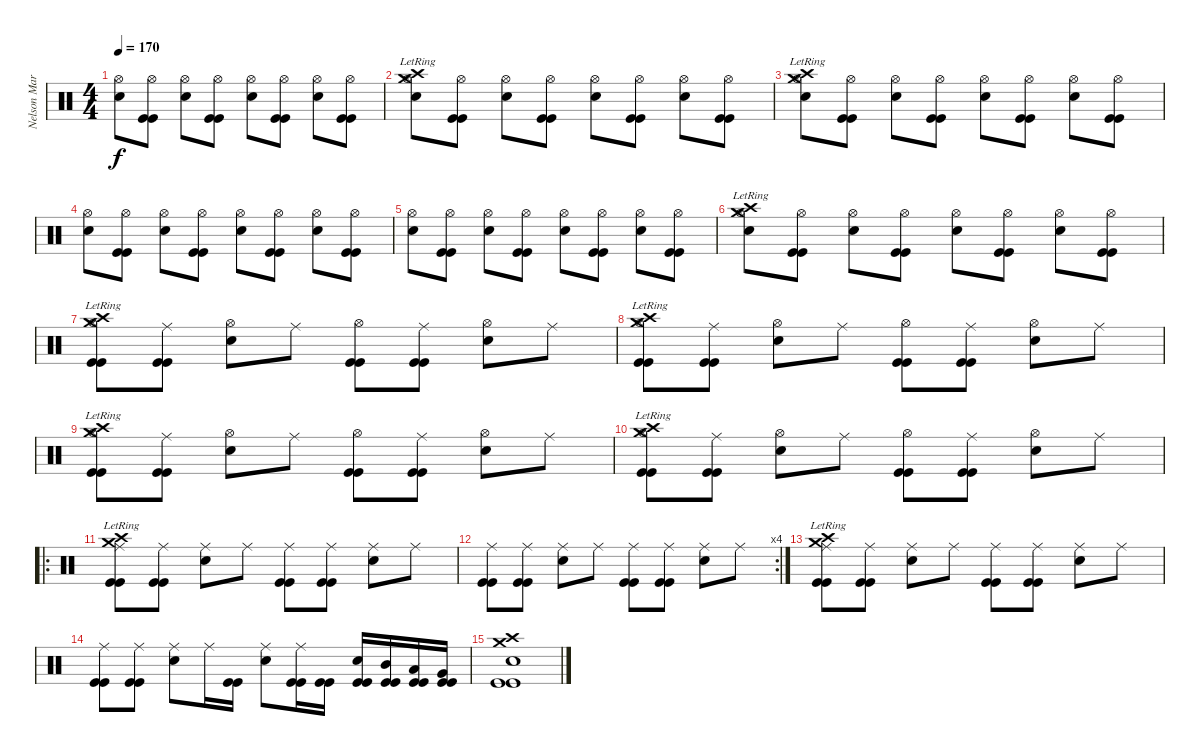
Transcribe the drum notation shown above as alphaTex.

\track ("Nelson Maria" "Nelson Mar") {instrument percussion}
\staff {score}
\articulation defaults
\ts (4 4)
\tempo 170
\clef neutral
\ks c
("Snare (hit) 2" "Hi-Hat (open)").8{dy f} ("Hi-Hat (open)" "Kick (hit)" "Kick (hit)").8 ("Snare (hit) 2" "Hi-Hat (open)").8 ("Hi-Hat (open)" "Kick (hit)" "Kick (hit)").8 ("Snare (hit) 2" "Hi-Hat (open)").8 ("Hi-Hat (open)" "Kick (hit)" "Kick (hit)").8 ("Snare (hit) 2" "Hi-Hat (open)").8 ("Hi-Hat (open)" "Kick (hit)" "Kick (hit)").8 |
("Crash high (hit)"{lr} "Crash medium (hit)"{lr} "Snare (hit) 2" "Hi-Hat (open)").8 ("Hi-Hat (open)" "Kick (hit)" "Kick (hit)").8 ("Snare (hit) 2" "Hi-Hat (open)").8 ("Hi-Hat (open)" "Kick (hit)" "Kick (hit)").8 ("Snare (hit) 2" "Hi-Hat (open)").8 ("Hi-Hat (open)" "Kick (hit)" "Kick (hit)").8 ("Snare (hit) 2" "Hi-Hat (open)").8 ("Hi-Hat (open)" "Kick (hit)" "Kick (hit)").8 |
("Crash high (hit)"{lr} "Crash medium (hit)"{lr} "Snare (hit) 2" "Hi-Hat (open)").8 ("Hi-Hat (open)" "Kick (hit)" "Kick (hit)").8 ("Snare (hit) 2" "Hi-Hat (open)").8 ("Hi-Hat (open)" "Kick (hit)" "Kick (hit)").8 ("Snare (hit) 2" "Hi-Hat (open)").8 ("Hi-Hat (open)" "Kick (hit)" "Kick (hit)").8 ("Snare (hit) 2" "Hi-Hat (open)").8 ("Hi-Hat (open)" "Kick (hit)" "Kick (hit)").8 |
("Snare (hit) 2" "Hi-Hat (open)").8 ("Hi-Hat (open)" "Kick (hit)" "Kick (hit)").8 ("Snare (hit) 2" "Hi-Hat (open)").8 ("Hi-Hat (open)" "Kick (hit)" "Kick (hit)").8 ("Snare (hit) 2" "Hi-Hat (open)").8 ("Hi-Hat (open)" "Kick (hit)" "Kick (hit)").8 ("Snare (hit) 2" "Hi-Hat (open)").8 ("Hi-Hat (open)" "Kick (hit)" "Kick (hit)").8 |
("Snare (hit) 2" "Hi-Hat (open)").8 ("Hi-Hat (open)" "Kick (hit)" "Kick (hit)").8 ("Snare (hit) 2" "Hi-Hat (open)").8 ("Hi-Hat (open)" "Kick (hit)" "Kick (hit)").8 ("Snare (hit) 2" "Hi-Hat (open)").8 ("Hi-Hat (open)" "Kick (hit)" "Kick (hit)").8 ("Snare (hit) 2" "Hi-Hat (open)").8 ("Hi-Hat (open)" "Kick (hit)" "Kick (hit)").8 |
("Crash high (hit)"{lr} "Crash medium (hit)"{lr} "Snare (hit) 2" "Hi-Hat (open)").8 ("Hi-Hat (open)" "Kick (hit)" "Kick (hit)").8 ("Snare (hit) 2" "Hi-Hat (open)").8 ("Hi-Hat (open)" "Kick (hit)" "Kick (hit)").8 ("Snare (hit) 2" "Hi-Hat (open)").8 ("Hi-Hat (open)" "Kick (hit)" "Kick (hit)").8 ("Snare (hit) 2" "Hi-Hat (open)").8 ("Hi-Hat (open)" "Kick (hit)" "Kick (hit)").8 |
("Crash high (hit)"{lr} "Crash medium (hit)"{lr} "Hi-Hat (open)" "Kick (hit)" "Kick (hit)").8 ("Ride (middle)" "Kick (hit)" "Kick (hit)").8 ("Snare (hit) 2" "Hi-Hat (open)").8 "Ride (middle)".8 ("Hi-Hat (open)" "Kick (hit)" "Kick (hit)").8 ("Ride (middle)" "Kick (hit)" "Kick (hit)").8 ("Snare (hit) 2" "Hi-Hat (open)").8 "Ride (middle)".8 |
("Crash high (hit)"{lr} "Crash medium (hit)"{lr} "Hi-Hat (open)" "Kick (hit)" "Kick (hit)").8 ("Ride (middle)" "Kick (hit)" "Kick (hit)").8 ("Snare (hit) 2" "Hi-Hat (open)").8 "Ride (middle)".8 ("Hi-Hat (open)" "Kick (hit)" "Kick (hit)").8 ("Ride (middle)" "Kick (hit)" "Kick (hit)").8 ("Snare (hit) 2" "Hi-Hat (open)").8 "Ride (middle)".8 |
("Crash high (hit)"{lr} "Crash medium (hit)"{lr} "Hi-Hat (open)" "Kick (hit)" "Kick (hit)").8 ("Ride (middle)" "Kick (hit)" "Kick (hit)").8 ("Snare (hit) 2" "Hi-Hat (open)").8 "Ride (middle)".8 ("Hi-Hat (open)" "Kick (hit)" "Kick (hit)").8 ("Ride (middle)" "Kick (hit)" "Kick (hit)").8 ("Snare (hit) 2" "Hi-Hat (open)").8 "Ride (middle)".8 |
("Crash high (hit)"{lr} "Crash medium (hit)"{lr} "Hi-Hat (open)" "Kick (hit)" "Kick (hit)").8 ("Ride (middle)" "Kick (hit)" "Kick (hit)").8 ("Snare (hit) 2" "Hi-Hat (open)").8 "Ride (middle)".8 ("Hi-Hat (open)" "Kick (hit)" "Kick (hit)").8 ("Ride (middle)" "Kick (hit)" "Kick (hit)").8 ("Snare (hit) 2" "Hi-Hat (open)").8 "Ride (middle)".8 |
\ro
("Crash high (hit)"{lr} "Crash medium (hit)"{lr} "Ride (middle)" "Kick (hit)" "Kick (hit)").8 ("Ride (middle)" "Kick (hit)" "Kick (hit)").8 ("Snare (hit) 2" "Ride (middle)").8 "Ride (middle)".8 ("Ride (middle)" "Kick (hit)" "Kick (hit)").8 ("Ride (middle)" "Kick (hit)" "Kick (hit)").8 ("Snare (hit) 2" "Ride (middle)").8 "Ride (middle)".8 |
\rc 4
("Ride (middle)" "Kick (hit)" "Kick (hit)").8 ("Ride (middle)" "Kick (hit)" "Kick (hit)").8 ("Snare (hit) 2" "Ride (middle)").8 "Ride (middle)".8 ("Ride (middle)" "Kick (hit)" "Kick (hit)").8 ("Ride (middle)" "Kick (hit)" "Kick (hit)").8 ("Snare (hit) 2" "Ride (middle)").8 "Ride (middle)".8 |
("Crash high (hit)"{lr} "Crash medium (hit)"{lr} "Ride (middle)" "Kick (hit)" "Kick (hit)").8 ("Ride (middle)" "Kick (hit)" "Kick (hit)").8 ("Snare (hit) 2" "Ride (middle)").8 "Ride (middle)".8 ("Ride (middle)" "Kick (hit)" "Kick (hit)").8 ("Ride (middle)" "Kick (hit)" "Kick (hit)").8 ("Snare (hit) 2" "Ride (middle)").8 "Ride (middle)".8 |
("Ride (middle)" "Kick (hit)" "Kick (hit)").8 ("Ride (middle)" "Kick (hit)" "Kick (hit)").8 ("Snare (hit) 2" "Ride (middle)").8 "Ride (middle)".16 ("Kick (hit)" "Kick (hit)").16 ("Snare (hit) 2" "Ride (middle)").8 ("Ride (middle)" "Kick (hit)" "Kick (hit)").16 ("Kick (hit)" "Kick (hit)").16 ("Snare (hit) 2" "Kick (hit)" "Kick (hit)").16 ("Mid Tom (hit)" "Kick (hit)" "Kick (hit)").16 ("Low Tom (hit)" "Kick (hit)" "Kick (hit)").16 ("Very Low Tom (hit)" "Kick (hit)" "Kick (hit)").16 |
("Crash high (hit)" "Crash medium (hit)" "Snare (hit) 2" "Kick (hit)" "Kick (hit)").1
